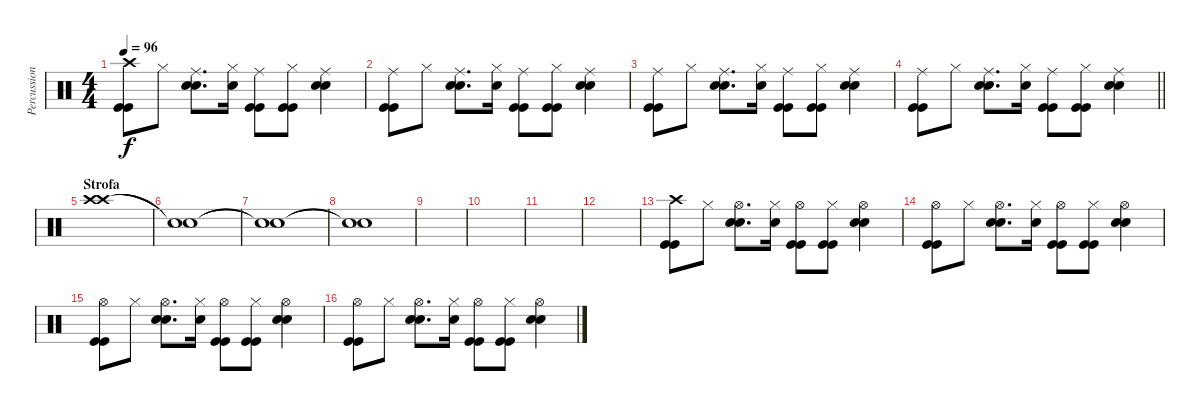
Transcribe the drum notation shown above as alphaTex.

\track ("Percussioni" "Percussion") {instrument percussion}
\staff {score}
\articulation defaults
\ts (4 4)
\tempo 96
\clef neutral
\ks c
("Crash high (hit)" "Kick (hit)" "Kick (hit)").8{dy f} "Hi-Hat (closed)".8 ("Ride (middle)" "Snare (hit) 2" "Snare (hit) 2").8{d} ("Hi-Hat (closed)" "Snare (hit) 2").16 ("Ride (middle)" "Kick (hit)" "Kick (hit)").8 ("Hi-Hat (closed)" "Kick (hit)" "Kick (hit)").8 ("Ride (middle)" "Snare (hit) 2" "Snare (hit) 2").4 |
("Ride (middle)" "Kick (hit)" "Kick (hit)").8 "Hi-Hat (closed)".8 ("Ride (middle)" "Snare (hit) 2" "Snare (hit) 2").8{d} ("Hi-Hat (closed)" "Snare (hit) 2").16 ("Ride (middle)" "Kick (hit)" "Kick (hit)").8 ("Hi-Hat (closed)" "Kick (hit)" "Kick (hit)").8 ("Ride (middle)" "Snare (hit) 2" "Snare (hit) 2").4 |
("Ride (middle)" "Kick (hit)" "Kick (hit)").8 "Hi-Hat (closed)".8 ("Ride (middle)" "Snare (hit) 2" "Snare (hit) 2").8{d} ("Hi-Hat (closed)" "Snare (hit) 2").16 ("Ride (middle)" "Kick (hit)" "Kick (hit)").8 ("Hi-Hat (closed)" "Kick (hit)" "Kick (hit)").8 ("Ride (middle)" "Snare (hit) 2" "Snare (hit) 2").4 |
\barLineRight lightlight
("Ride (middle)" "Kick (hit)" "Kick (hit)").8 "Hi-Hat (closed)".8 ("Ride (middle)" "Snare (hit) 2" "Snare (hit) 2").8{d} ("Hi-Hat (closed)" "Snare (hit) 2").16 ("Ride (middle)" "Kick (hit)" "Kick (hit)").8 ("Hi-Hat (closed)" "Kick (hit)" "Kick (hit)").8 ("Ride (middle)" "Snare (hit) 2" "Snare (hit) 2").4 |
\section ("" "Strofa")
("Crash high (hit)" "Crash high (hit)").1 |
("Snare (hit)"{t} "Snare (hit)"{t}).1 |
("Snare (hit)"{t} "Snare (hit)"{t}).1 |
("Snare (hit)"{t} "Snare (hit)"{t}).1 |
|
|
|
|
("Crash high (hit)" "Kick (hit)" "Kick (hit)").8 "Hi-Hat (closed)".8 ("Hi-Hat (open)" "Snare (hit) 2" "Snare (hit) 2").8{d} ("Hi-Hat (closed)" "Snare (hit) 2").16 ("Hi-Hat (open)" "Kick (hit)" "Kick (hit)").8 ("Hi-Hat (closed)" "Kick (hit)" "Kick (hit)").8 ("Hi-Hat (open)" "Snare (hit) 2" "Snare (hit) 2").4 |
("Hi-Hat (open)" "Kick (hit)" "Kick (hit)").8 "Hi-Hat (closed)".8 ("Hi-Hat (open)" "Snare (hit) 2" "Snare (hit) 2").8{d} ("Hi-Hat (closed)" "Snare (hit) 2").16 ("Hi-Hat (open)" "Kick (hit)" "Kick (hit)").8 ("Hi-Hat (closed)" "Kick (hit)" "Kick (hit)").8 ("Hi-Hat (open)" "Snare (hit) 2" "Snare (hit) 2").4 |
("Hi-Hat (open)" "Kick (hit)" "Kick (hit)").8 "Hi-Hat (closed)".8 ("Hi-Hat (open)" "Snare (hit) 2" "Snare (hit) 2").8{d} ("Hi-Hat (closed)" "Snare (hit) 2").16 ("Hi-Hat (open)" "Kick (hit)" "Kick (hit)").8 ("Hi-Hat (closed)" "Kick (hit)" "Kick (hit)").8 ("Hi-Hat (open)" "Snare (hit) 2" "Snare (hit) 2").4 |
("Hi-Hat (open)" "Kick (hit)" "Kick (hit)").8 "Hi-Hat (closed)".8 ("Hi-Hat (open)" "Snare (hit) 2" "Snare (hit) 2").8{d} ("Hi-Hat (closed)" "Snare (hit) 2").16 ("Hi-Hat (open)" "Kick (hit)" "Kick (hit)").8 ("Hi-Hat (closed)" "Kick (hit)" "Kick (hit)").8 ("Hi-Hat (open)" "Snare (hit) 2" "Snare (hit) 2").4
